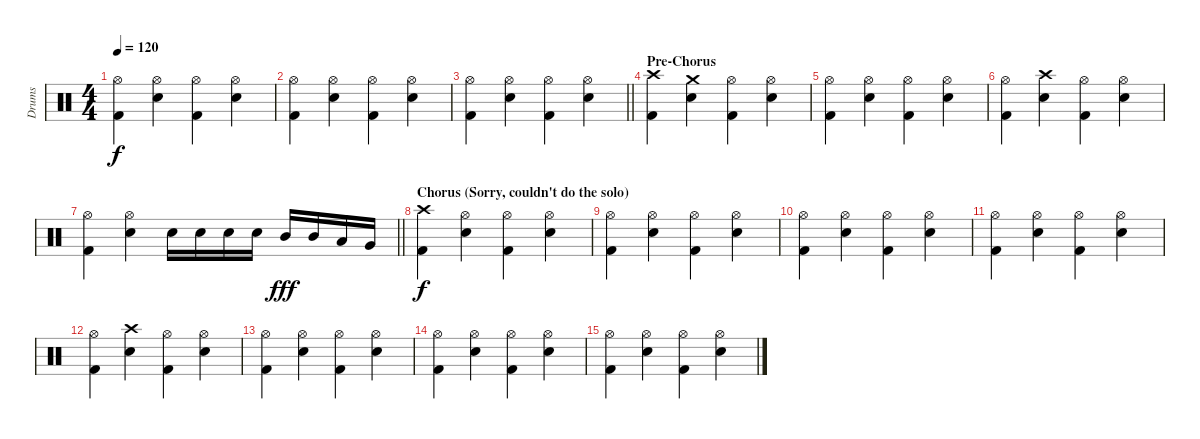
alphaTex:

\track ("Drums" "Drums") {instrument percussion}
\staff {score}
\articulation defaults
\ts (4 4)
\tempo 120
\clef neutral
\ks c
("Hi-Hat (open)" "Kick (hit) 2").4{dy f} ("Hi-Hat (open)" "Snare (hit) 2").4 ("Hi-Hat (open)" "Kick (hit) 2").4 ("Hi-Hat (open)" "Snare (hit) 2").4 |
("Hi-Hat (open)" "Kick (hit) 2").4 ("Hi-Hat (open)" "Snare (hit) 2").4 ("Hi-Hat (open)" "Kick (hit) 2").4 ("Hi-Hat (open)" "Snare (hit) 2").4 |
\barLineRight lightlight
("Hi-Hat (open)" "Kick (hit) 2").4 ("Hi-Hat (open)" "Snare (hit) 2").4 ("Hi-Hat (open)" "Kick (hit) 2").4 ("Hi-Hat (open)" "Snare (hit) 2").4 |
\section ("" "Pre-Chorus")
("Crash high (hit)" "Kick (hit) 2").4 ("Crash medium (hit)" "Snare (hit) 2").4 ("Hi-Hat (open)" "Kick (hit) 2").4 ("Hi-Hat (open)" "Snare (hit) 2").4 |
("Hi-Hat (open)" "Kick (hit) 2").4 ("Hi-Hat (open)" "Snare (hit) 2").4 ("Hi-Hat (open)" "Kick (hit) 2").4 ("Hi-Hat (open)" "Snare (hit) 2").4 |
("Hi-Hat (open)" "Kick (hit) 2").4 ("Crash high (hit)" "Snare (hit) 2").4 ("Hi-Hat (open)" "Kick (hit) 2").4 ("Hi-Hat (open)" "Snare (hit) 2").4 |
\barLineRight lightlight
("Hi-Hat (open)" "Kick (hit) 2").4 ("Hi-Hat (open)" "Snare (hit) 2").4 "Snare (hit) 2".16 "Snare (hit) 2".16 "Snare (hit) 2".16 "Snare (hit) 2".16 "Mid Tom (hit)".16{dy fff} "Mid Tom (hit)".16 "Low Tom (hit)".16 "Very Low Tom (hit)".16 |
\section ("" "Chorus (Sorry, couldn't do the solo)")
("Crash high (hit)" "Kick (hit) 2").4{dy f} ("Hi-Hat (open)" "Snare (hit) 2").4 ("Hi-Hat (open)" "Kick (hit) 2").4 ("Hi-Hat (open)" "Snare (hit) 2").4 |
("Hi-Hat (open)" "Kick (hit) 2").4 ("Hi-Hat (open)" "Snare (hit) 2").4 ("Hi-Hat (open)" "Kick (hit) 2").4 ("Hi-Hat (open)" "Snare (hit) 2").4 |
("Hi-Hat (open)" "Kick (hit) 2").4 ("Hi-Hat (open)" "Snare (hit) 2").4 ("Hi-Hat (open)" "Kick (hit) 2").4 ("Hi-Hat (open)" "Snare (hit) 2").4 |
("Hi-Hat (open)" "Kick (hit) 2").4 ("Hi-Hat (open)" "Snare (hit) 2").4 ("Hi-Hat (open)" "Kick (hit) 2").4 ("Hi-Hat (open)" "Snare (hit) 2").4 |
("Hi-Hat (open)" "Kick (hit) 2").4{volume 0} ("Crash high (hit)" "Snare (hit) 2").4 ("Hi-Hat (open)" "Kick (hit) 2").4 ("Hi-Hat (open)" "Snare (hit) 2").4 |
("Hi-Hat (open)" "Kick (hit) 2").4 ("Hi-Hat (open)" "Snare (hit) 2").4 ("Hi-Hat (open)" "Kick (hit) 2").4 ("Hi-Hat (open)" "Snare (hit) 2").4 |
("Hi-Hat (open)" "Kick (hit) 2").4 ("Hi-Hat (open)" "Snare (hit) 2").4 ("Hi-Hat (open)" "Kick (hit) 2").4 ("Hi-Hat (open)" "Snare (hit) 2").4 |
("Hi-Hat (open)" "Kick (hit) 2").4 ("Hi-Hat (open)" "Snare (hit) 2").4 ("Hi-Hat (open)" "Kick (hit) 2").4 ("Hi-Hat (open)" "Snare (hit) 2").4
